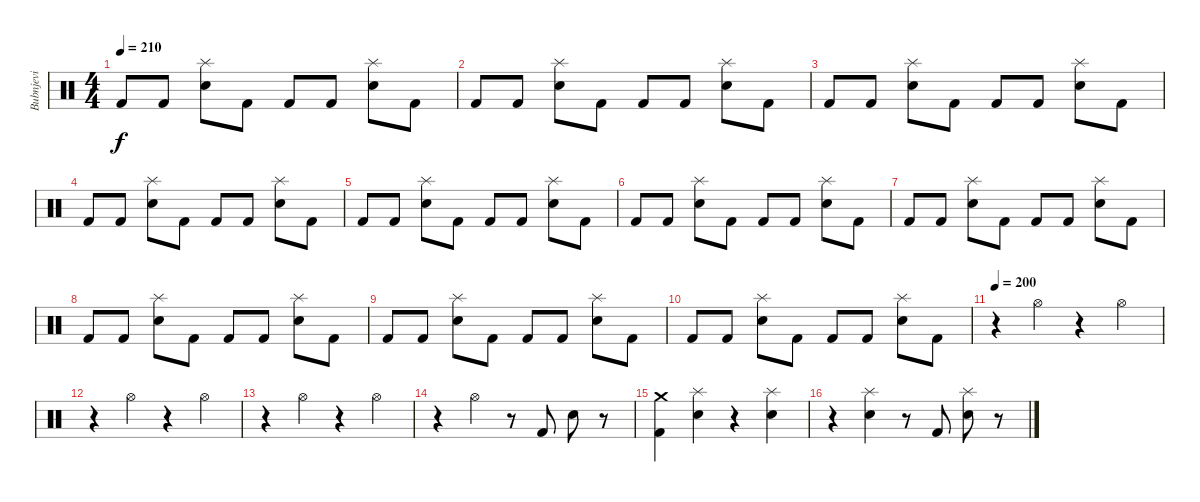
\track ("Bubnjevi" "Bubnjevi") {instrument percussion}
\staff {score}
\articulation defaults
\ts (4 4)
\tempo 210
\clef neutral
\ks c "Kick (hit) 2".8{dy f} "Kick (hit) 2".8
("Splash (hit)" "Electric Snare (hit)").8 "Kick (hit) 2".8 "Kick (hit) 2".8 "Kick (hit) 2".8 ("Splash (hit)" "Electric Snare (hit)").8 "Kick (hit) 2".8 |
"Kick (hit) 2".8 "Kick (hit) 2".8 ("Splash (hit)" "Electric Snare (hit)").8 "Kick (hit) 2".8 "Kick (hit) 2".8 "Kick (hit) 2".8 ("Splash (hit)" "Electric Snare (hit)").8 "Kick (hit) 2".8 |
"Kick (hit) 2".8 "Kick (hit) 2".8 ("Splash (hit)" "Electric Snare (hit)").8 "Kick (hit) 2".8 "Kick (hit) 2".8 "Kick (hit) 2".8 ("Splash (hit)" "Electric Snare (hit)").8 "Kick (hit) 2".8 |
"Kick (hit) 2".8 "Kick (hit) 2".8 ("Splash (hit)" "Electric Snare (hit)").8 "Kick (hit) 2".8 "Kick (hit) 2".8 "Kick (hit) 2".8 ("Splash (hit)" "Electric Snare (hit)").8 "Kick (hit) 2".8 |
"Kick (hit) 2".8 "Kick (hit) 2".8 ("Splash (hit)" "Electric Snare (hit)").8 "Kick (hit) 2".8 "Kick (hit) 2".8 "Kick (hit) 2".8 ("Splash (hit)" "Electric Snare (hit)").8 "Kick (hit) 2".8 |
"Kick (hit) 2".8 "Kick (hit) 2".8 ("Splash (hit)" "Electric Snare (hit)").8 "Kick (hit) 2".8 "Kick (hit) 2".8 "Kick (hit) 2".8 ("Splash (hit)" "Electric Snare (hit)").8 "Kick (hit) 2".8 |
"Kick (hit) 2".8 "Kick (hit) 2".8 ("Splash (hit)" "Electric Snare (hit)").8 "Kick (hit) 2".8 "Kick (hit) 2".8 "Kick (hit) 2".8 ("Splash (hit)" "Electric Snare (hit)").8 "Kick (hit) 2".8 |
"Kick (hit) 2".8 "Kick (hit) 2".8 ("Splash (hit)" "Electric Snare (hit)").8 "Kick (hit) 2".8 "Kick (hit) 2".8 "Kick (hit) 2".8 ("Splash (hit)" "Electric Snare (hit)").8 "Kick (hit) 2".8 |
"Kick (hit) 2".8 "Kick (hit) 2".8 ("Splash (hit)" "Electric Snare (hit)").8 "Kick (hit) 2".8 "Kick (hit) 2".8 "Kick (hit) 2".8 ("Splash (hit)" "Electric Snare (hit)").8 "Kick (hit) 2".8 |
"Kick (hit) 2".8 "Kick (hit) 2".8 ("Splash (hit)" "Electric Snare (hit)").8 "Kick (hit) 2".8 "Kick (hit) 2".8 "Kick (hit) 2".8 ("Splash (hit)" "Electric Snare (hit)").8 "Kick (hit) 2".8 |
\tempo 200
r.4 "Hi-Hat (open)".4 r.4 "Hi-Hat (open)".4 |
r.4 "Hi-Hat (open)".4 r.4 "Hi-Hat (open)".4 |
r.4 "Hi-Hat (open)".4 r.4 "Hi-Hat (open)".4 |
r.4 "Hi-Hat (open)".4 r.8 "Kick (hit) 2".8 "Electric Snare (hit)".8 r.8 |
("Crash medium (hit)" "Kick (hit) 2").4 ("Splash (hit)" "Electric Snare (hit)").4 r.4 ("Splash (hit)" "Electric Snare (hit)").4 |
r.4 ("Splash (hit)" "Electric Snare (hit)").4 r.8 "Kick (hit) 2".8 ("Splash (hit)" "Electric Snare (hit)").8 r.8
